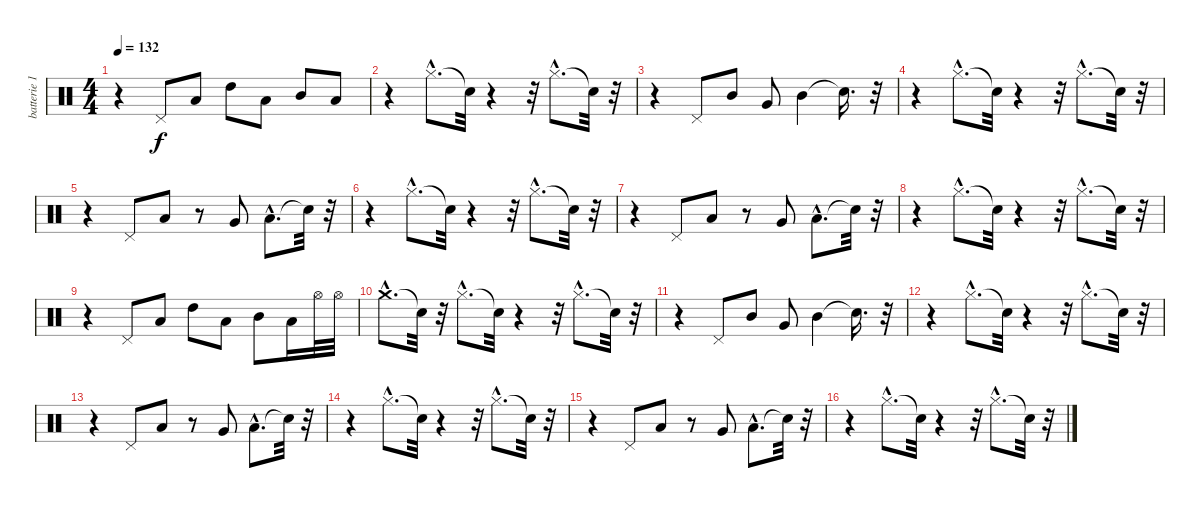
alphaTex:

\track ("batterie 1" "batterie 1") {instrument percussion}
\staff {score}
\articulation defaults
\ts (4 4)
\tempo 132
\clef neutral
\ks c
r.4{dy f} "Pedal Hi-Hat (hit)".8 "Low Floor Tom (hit)".8 "High Tom (hit)".8 "Low Floor Tom (hit)".8 "Mid Tom (hit)".8 "Low Floor Tom (hit)".8 |
r.4 "Hi-Hat (closed)"{hac}.8{d} "Snare (hit)"{t}.32 r.4 r.32 "Hi-Hat (closed)"{hac}.8{d} "Snare (hit)"{t}.32 r.32 |
r.4 "Pedal Hi-Hat (hit)".8 "Mid Tom (hit)".8 "Very Low Tom (hit)".8 "Mid Tom (hit)".4 "Snare (hit)"{t}.16{d} r.32 |
r.4 "Hi-Hat (closed)"{hac}.8{d} "Snare (hit)"{t}.32 r.4 r.32 "Hi-Hat (closed)"{hac}.8{d} "Snare (hit)"{t}.32 r.32 |
r.4 "Pedal Hi-Hat (hit)".8 "Low Tom (hit)".8 r.8 "Very Low Tom (hit)".8 "Low Floor Tom (hit)"{hac}.8{d} "Snare (hit)"{t}.32 r.32 |
r.4 "Hi-Hat (closed)"{hac}.8{d} "Snare (hit)"{t}.32 r.4 r.32 "Hi-Hat (closed)"{hac}.8{d} "Snare (hit)"{t}.32 r.32 |
r.4 "Pedal Hi-Hat (hit)".8 "Low Tom (hit)".8 r.8 "Very Low Tom (hit)".8 "Low Floor Tom (hit)"{hac}.8{d} "Snare (hit)"{t}.32 r.32 |
r.4 "Hi-Hat (closed)"{hac}.8{d} "Snare (hit)"{t}.32 r.4 r.32 "Hi-Hat (closed)"{hac}.8{d} "Snare (hit)"{t}.32 r.32 |
r.4 "Pedal Hi-Hat (hit)".8 "Low Floor Tom (hit)".8 "High Tom (hit)".8 "Low Floor Tom (hit)".8 "Mid Tom (hit)".8 "Low Floor Tom (hit)".16 "Hi-Hat (open)".32 "Hi-Hat (open)".32 |
"Crash medium (hit)"{hac}.8{d} "Snare (hit)"{t}.32 r.32 "Hi-Hat (closed)"{hac}.8{d} "Snare (hit)"{t}.32 r.4 r.32 "Hi-Hat (closed)"{hac}.8{d} "Snare (hit)"{t}.32 r.32 |
r.4 "Pedal Hi-Hat (hit)".8 "Mid Tom (hit)".8 "Very Low Tom (hit)".8 "Mid Tom (hit)".4 "Snare (hit)"{t}.16{d} r.32 |
r.4 "Hi-Hat (closed)"{hac}.8{d} "Snare (hit)"{t}.32 r.4 r.32 "Hi-Hat (closed)"{hac}.8{d} "Snare (hit)"{t}.32 r.32 |
r.4 "Pedal Hi-Hat (hit)".8 "Low Tom (hit)".8 r.8 "Very Low Tom (hit)".8 "Low Floor Tom (hit)"{hac}.8{d} "Snare (hit)"{t}.32 r.32 |
r.4 "Hi-Hat (closed)"{hac}.8{d} "Snare (hit)"{t}.32 r.4 r.32 "Hi-Hat (closed)"{hac}.8{d} "Snare (hit)"{t}.32 r.32 |
r.4 "Pedal Hi-Hat (hit)".8 "Low Tom (hit)".8 r.8 "Very Low Tom (hit)".8 "Low Floor Tom (hit)"{hac}.8{d} "Snare (hit)"{t}.32 r.32 |
r.4 "Hi-Hat (closed)"{hac}.8{d} "Snare (hit)"{t}.32 r.4 r.32 "Hi-Hat (closed)"{hac}.8{d} "Snare (hit)"{t}.32 r.32
